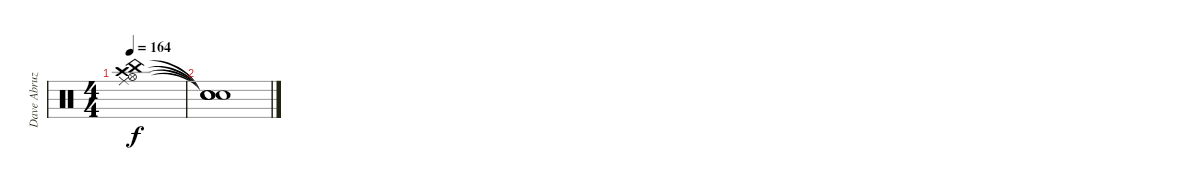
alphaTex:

\track ("Dave Abruzzese" "Dave Abruz") {instrument percussion}
\staff {score}
\articulation defaults
\ts (4 4)
\tempo 164
\clef neutral
\ks c
("China (hit)" "Ride (middle)" "Hi-Hat (open)" "Crash high (hit)").1{dy f} |
("Snare (hit)"{t} "Snare (hit)"{t} "Snare (hit)"{t} "Snare (hit)"{t}).1
